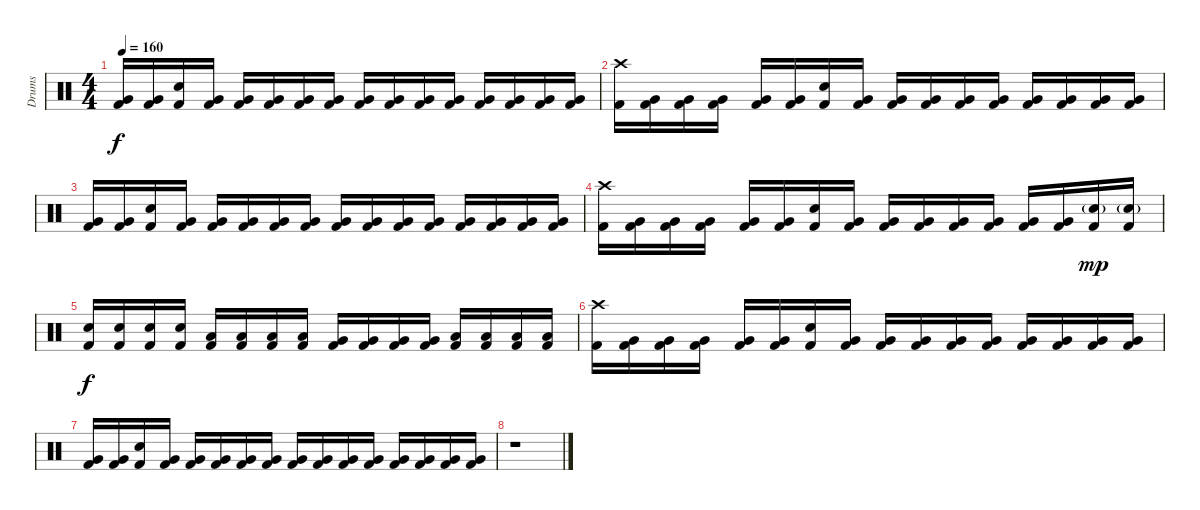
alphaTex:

\track ("Drums" "Drums") {instrument percussion}
\staff {score}
\articulation defaults
\ts (4 4)
\tempo 160
\clef neutral
\ks c
("Very Low Tom (hit)" "Kick (hit) 2").16{dy f} ("Very Low Tom (hit)" "Kick (hit) 2").16 ("Snare (hit) 2" "Kick (hit) 2").16 ("Very Low Tom (hit)" "Kick (hit) 2").16 ("Very Low Tom (hit)" "Kick (hit) 2").16 ("Very Low Tom (hit)" "Kick (hit) 2").16 ("Very Low Tom (hit)" "Kick (hit) 2").16 ("Very Low Tom (hit)" "Kick (hit) 2").16 ("Very Low Tom (hit)" "Kick (hit) 2").16 ("Very Low Tom (hit)" "Kick (hit) 2").16 ("Very Low Tom (hit)" "Kick (hit) 2").16 ("Very Low Tom (hit)" "Kick (hit) 2").16 ("Very Low Tom (hit)" "Kick (hit) 2").16 ("Very Low Tom (hit)" "Kick (hit) 2").16 ("Very Low Tom (hit)" "Kick (hit) 2").16 ("Very Low Tom (hit)" "Kick (hit) 2").16 |
("Crash high (hit)" "Kick (hit) 2").16{volume 4} ("Very Low Tom (hit)" "Kick (hit) 2").16 ("Very Low Tom (hit)" "Kick (hit) 2").16 ("Very Low Tom (hit)" "Kick (hit) 2").16 ("Very Low Tom (hit)" "Kick (hit) 2").16 ("Very Low Tom (hit)" "Kick (hit) 2").16 ("Snare (hit) 2" "Kick (hit) 2").16 ("Very Low Tom (hit)" "Kick (hit) 2").16 ("Very Low Tom (hit)" "Kick (hit) 2").16 ("Very Low Tom (hit)" "Kick (hit) 2").16 ("Very Low Tom (hit)" "Kick (hit) 2").16 ("Very Low Tom (hit)" "Kick (hit) 2").16 ("Very Low Tom (hit)" "Kick (hit) 2").16 ("Very Low Tom (hit)" "Kick (hit) 2").16 ("Very Low Tom (hit)" "Kick (hit) 2").16 ("Very Low Tom (hit)" "Kick (hit) 2").16 |
("Very Low Tom (hit)" "Kick (hit) 2").16 ("Very Low Tom (hit)" "Kick (hit) 2").16 ("Snare (hit) 2" "Kick (hit) 2").16 ("Very Low Tom (hit)" "Kick (hit) 2").16 ("Very Low Tom (hit)" "Kick (hit) 2").16 ("Very Low Tom (hit)" "Kick (hit) 2").16 ("Very Low Tom (hit)" "Kick (hit) 2").16 ("Very Low Tom (hit)" "Kick (hit) 2").16 ("Very Low Tom (hit)" "Kick (hit) 2").16 ("Very Low Tom (hit)" "Kick (hit) 2").16 ("Very Low Tom (hit)" "Kick (hit) 2").16 ("Very Low Tom (hit)" "Kick (hit) 2").16 ("Very Low Tom (hit)" "Kick (hit) 2").16 ("Very Low Tom (hit)" "Kick (hit) 2").16 ("Very Low Tom (hit)" "Kick (hit) 2").16 ("Very Low Tom (hit)" "Kick (hit) 2").16 |
("Crash high (hit)" "Kick (hit) 2").16{volume 2} ("Very Low Tom (hit)" "Kick (hit) 2").16 ("Very Low Tom (hit)" "Kick (hit) 2").16 ("Very Low Tom (hit)" "Kick (hit) 2").16 ("Very Low Tom (hit)" "Kick (hit) 2").16 ("Very Low Tom (hit)" "Kick (hit) 2").16 ("Snare (hit) 2" "Kick (hit) 2").16 ("Very Low Tom (hit)" "Kick (hit) 2").16 ("Very Low Tom (hit)" "Kick (hit) 2").16 ("Very Low Tom (hit)" "Kick (hit) 2").16 ("Very Low Tom (hit)" "Kick (hit) 2").16 ("Very Low Tom (hit)" "Kick (hit) 2").16 ("Very Low Tom (hit)" "Kick (hit) 2").16 ("Very Low Tom (hit)" "Kick (hit) 2").16 ("Snare (hit) 2"{g} "Kick (hit) 2").16{dy mp} ("Snare (hit) 2"{g} "Kick (hit) 2").16 |
("Snare (hit) 2" "Kick (hit) 2").16{dy f} ("Snare (hit) 2" "Kick (hit) 2").16 ("Snare (hit) 2" "Kick (hit) 2").16 ("Snare (hit) 2" "Kick (hit) 2").16 ("Low Tom (hit)" "Kick (hit) 2").16 ("Low Tom (hit)" "Kick (hit) 2").16 ("Low Tom (hit)" "Kick (hit) 2").16 ("Low Tom (hit)" "Kick (hit) 2").16 ("Very Low Tom (hit)" "Kick (hit) 2").16 ("Very Low Tom (hit)" "Kick (hit) 2").16 ("Very Low Tom (hit)" "Kick (hit) 2").16 ("Very Low Tom (hit)" "Kick (hit) 2").16 ("Low Floor Tom (hit)" "Kick (hit) 2").16 ("Low Floor Tom (hit)" "Kick (hit) 2").16 ("Low Floor Tom (hit)" "Kick (hit) 2").16 ("Low Floor Tom (hit)" "Kick (hit) 2").16 |
("Crash high (hit)" "Kick (hit) 2").16{volume 0} ("Very Low Tom (hit)" "Kick (hit) 2").16 ("Very Low Tom (hit)" "Kick (hit) 2").16 ("Very Low Tom (hit)" "Kick (hit) 2").16 ("Very Low Tom (hit)" "Kick (hit) 2").16 ("Very Low Tom (hit)" "Kick (hit) 2").16 ("Snare (hit) 2" "Kick (hit) 2").16 ("Very Low Tom (hit)" "Kick (hit) 2").16 ("Very Low Tom (hit)" "Kick (hit) 2").16 ("Very Low Tom (hit)" "Kick (hit) 2").16 ("Very Low Tom (hit)" "Kick (hit) 2").16 ("Very Low Tom (hit)" "Kick (hit) 2").16 ("Very Low Tom (hit)" "Kick (hit) 2").16 ("Very Low Tom (hit)" "Kick (hit) 2").16 ("Very Low Tom (hit)" "Kick (hit) 2").16 ("Very Low Tom (hit)" "Kick (hit) 2").16 |
("Very Low Tom (hit)" "Kick (hit) 2").16 ("Very Low Tom (hit)" "Kick (hit) 2").16 ("Snare (hit) 2" "Kick (hit) 2").16 ("Very Low Tom (hit)" "Kick (hit) 2").16 ("Very Low Tom (hit)" "Kick (hit) 2").16 ("Very Low Tom (hit)" "Kick (hit) 2").16 ("Very Low Tom (hit)" "Kick (hit) 2").16 ("Very Low Tom (hit)" "Kick (hit) 2").16 ("Very Low Tom (hit)" "Kick (hit) 2").16 ("Very Low Tom (hit)" "Kick (hit) 2").16 ("Very Low Tom (hit)" "Kick (hit) 2").16 ("Very Low Tom (hit)" "Kick (hit) 2").16 ("Very Low Tom (hit)" "Kick (hit) 2").16 ("Very Low Tom (hit)" "Kick (hit) 2").16 ("Very Low Tom (hit)" "Kick (hit) 2").16 ("Very Low Tom (hit)" "Kick (hit) 2").16 |
r.1{volume 0}
